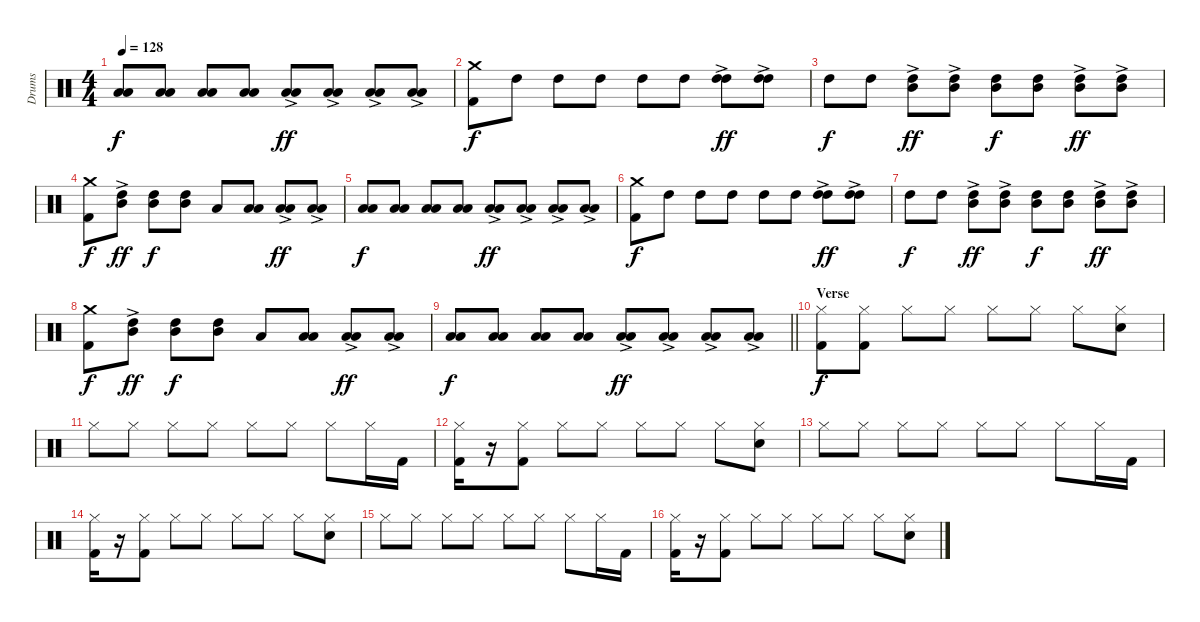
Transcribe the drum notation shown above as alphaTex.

\track ("Drums" "Drums") {instrument percussion}
\staff {score}
\articulation defaults
\ts (4 4)
\tempo 128
\clef neutral
\ks c
("Low Tom (hit)" "Low Floor Tom (hit)").8{dy f volume 13 balance 4} ("Low Tom (hit)" "Low Floor Tom (hit)").8 ("Low Tom (hit)" "Low Floor Tom (hit)").8 ("Low Tom (hit)" "Low Floor Tom (hit)").8 ("Low Floor Tom (hit)"{ac} "Low Floor Tom (hit)"{ac}).8{dy ff volume 16} ("Low Floor Tom (hit)"{ac} "Low Floor Tom (hit)"{ac}).8 ("Low Floor Tom (hit)"{ac} "Low Floor Tom (hit)"{ac}).8 ("Low Floor Tom (hit)"{ac} "Low Floor Tom (hit)"{ac}).8 |
("Crash medium (hit)" "Kick (hit) 2").8{dy f balance 8} "High Tom (hit)".8{volume 13 balance 12} "High Tom (hit)".8 "High Tom (hit)".8 "High Tom (hit)".8 "High Tom (hit)".8 ("High Tom (hit)"{ac} "High Tom (hit)"{ac}).8{dy ff volume 16} ("High Tom (hit)"{ac} "High Tom (hit)"{ac}).8 |
"High Tom (hit)".8{dy f volume 13 balance 11} "High Tom (hit)".8 ("High Tom (hit)"{ac} "Mid Tom (hit)"{ac}).8{dy ff volume 16} ("High Tom (hit)"{ac} "Mid Tom (hit)"{ac}).8 ("High Tom (hit)" "Mid Tom (hit)").8{dy f volume 13} ("High Tom (hit)" "Mid Tom (hit)").8 ("High Tom (hit)"{ac} "Mid Tom (hit)"{ac}).8{dy ff volume 16} ("High Tom (hit)"{ac} "Mid Tom (hit)"{ac}).8 |
("Crash medium (hit)" "Kick (hit) 2").8{dy f} ("High Tom (hit)"{ac} "Mid Tom (hit)"{ac}).8{dy ff} ("High Tom (hit)" "Mid Tom (hit)").8{dy f volume 13 balance 6} ("High Tom (hit)" "Mid Tom (hit)").8 "Low Tom (hit)".8 ("Low Tom (hit)" "Low Tom (hit)").8 ("Low Tom (hit)"{ac} "Low Tom (hit)"{ac}).8{dy ff volume 16} ("Low Tom (hit)"{ac} "Low Tom (hit)"{ac}).8 |
("Low Tom (hit)" "Low Floor Tom (hit)").8{dy f volume 13 balance 4} ("Low Tom (hit)" "Low Floor Tom (hit)").8 ("Low Tom (hit)" "Low Floor Tom (hit)").8 ("Low Tom (hit)" "Low Floor Tom (hit)").8 ("Low Floor Tom (hit)"{ac} "Low Floor Tom (hit)"{ac}).8{dy ff volume 16} ("Low Floor Tom (hit)"{ac} "Low Floor Tom (hit)"{ac}).8 ("Low Floor Tom (hit)"{ac} "Low Floor Tom (hit)"{ac}).8 ("Low Floor Tom (hit)"{ac} "Low Floor Tom (hit)"{ac}).8 |
("Crash medium (hit)" "Kick (hit) 2").8{dy f balance 8} "High Tom (hit)".8{volume 13 balance 12} "High Tom (hit)".8 "High Tom (hit)".8 "High Tom (hit)".8 "High Tom (hit)".8 ("High Tom (hit)"{ac} "High Tom (hit)"{ac}).8{dy ff volume 16} ("High Tom (hit)"{ac} "High Tom (hit)"{ac}).8 |
"High Tom (hit)".8{dy f volume 13 balance 11} "High Tom (hit)".8 ("High Tom (hit)"{ac} "Mid Tom (hit)"{ac}).8{dy ff volume 16} ("High Tom (hit)"{ac} "Mid Tom (hit)"{ac}).8 ("High Tom (hit)" "Mid Tom (hit)").8{dy f volume 13} ("High Tom (hit)" "Mid Tom (hit)").8 ("High Tom (hit)"{ac} "Mid Tom (hit)"{ac}).8{dy ff volume 16} ("High Tom (hit)"{ac} "Mid Tom (hit)"{ac}).8 |
("Crash medium (hit)" "Kick (hit) 2").8{dy f} ("High Tom (hit)"{ac} "Mid Tom (hit)"{ac}).8{dy ff} ("High Tom (hit)" "Mid Tom (hit)").8{dy f volume 13 balance 6} ("High Tom (hit)" "Mid Tom (hit)").8 "Low Tom (hit)".8 ("Low Tom (hit)" "Low Tom (hit)").8 ("Low Tom (hit)"{ac} "Low Tom (hit)"{ac}).8{dy ff volume 16} ("Low Tom (hit)"{ac} "Low Tom (hit)"{ac}).8 |
\barLineRight lightlight
("Low Tom (hit)" "Low Floor Tom (hit)").8{dy f volume 13 balance 4} ("Low Tom (hit)" "Low Floor Tom (hit)").8 ("Low Tom (hit)" "Low Floor Tom (hit)").8 ("Low Tom (hit)" "Low Floor Tom (hit)").8 ("Low Floor Tom (hit)"{ac} "Low Floor Tom (hit)"{ac}).8{dy ff volume 16} ("Low Floor Tom (hit)"{ac} "Low Floor Tom (hit)"{ac}).8 ("Low Floor Tom (hit)"{ac} "Low Floor Tom (hit)"{ac}).8 ("Low Floor Tom (hit)"{ac} "Low Floor Tom (hit)"{ac}).8 |
\section ("" "Verse")
("Hi-Hat (closed)" "Kick (hit) 2").8{dy f} ("Hi-Hat (closed)" "Kick (hit) 2").8 "Hi-Hat (closed)".8 "Hi-Hat (closed)".8 "Hi-Hat (closed)".8 "Hi-Hat (closed)".8 "Hi-Hat (closed)".8 ("Hi-Hat (closed)" "Electric Snare (hit)").8 |
"Hi-Hat (closed)".8 "Hi-Hat (closed)".8 "Hi-Hat (closed)".8 "Hi-Hat (closed)".8 "Hi-Hat (closed)".8 "Hi-Hat (closed)".8 "Hi-Hat (closed)".8 "Hi-Hat (closed)".16 "Kick (hit) 2".16 |
("Hi-Hat (closed)" "Kick (hit) 2").16 r.16 ("Hi-Hat (closed)" "Kick (hit) 2").8 "Hi-Hat (closed)".8 "Hi-Hat (closed)".8 "Hi-Hat (closed)".8 "Hi-Hat (closed)".8 "Hi-Hat (closed)".8 ("Hi-Hat (closed)" "Electric Snare (hit)").8 |
"Hi-Hat (closed)".8 "Hi-Hat (closed)".8 "Hi-Hat (closed)".8 "Hi-Hat (closed)".8 "Hi-Hat (closed)".8 "Hi-Hat (closed)".8 "Hi-Hat (closed)".8 "Hi-Hat (closed)".16 "Kick (hit) 2".16 |
("Hi-Hat (closed)" "Kick (hit) 2").16 r.16 ("Hi-Hat (closed)" "Kick (hit) 2").8 "Hi-Hat (closed)".8 "Hi-Hat (closed)".8 "Hi-Hat (closed)".8 "Hi-Hat (closed)".8 "Hi-Hat (closed)".8 ("Hi-Hat (closed)" "Electric Snare (hit)").8 |
"Hi-Hat (closed)".8 "Hi-Hat (closed)".8 "Hi-Hat (closed)".8 "Hi-Hat (closed)".8 "Hi-Hat (closed)".8 "Hi-Hat (closed)".8 "Hi-Hat (closed)".8 "Hi-Hat (closed)".16 "Kick (hit) 2".16 |
("Hi-Hat (closed)" "Kick (hit) 2").16 r.16 ("Hi-Hat (closed)" "Kick (hit) 2").8 "Hi-Hat (closed)".8 "Hi-Hat (closed)".8 "Hi-Hat (closed)".8 "Hi-Hat (closed)".8 "Hi-Hat (closed)".8 ("Hi-Hat (closed)" "Electric Snare (hit)").8
